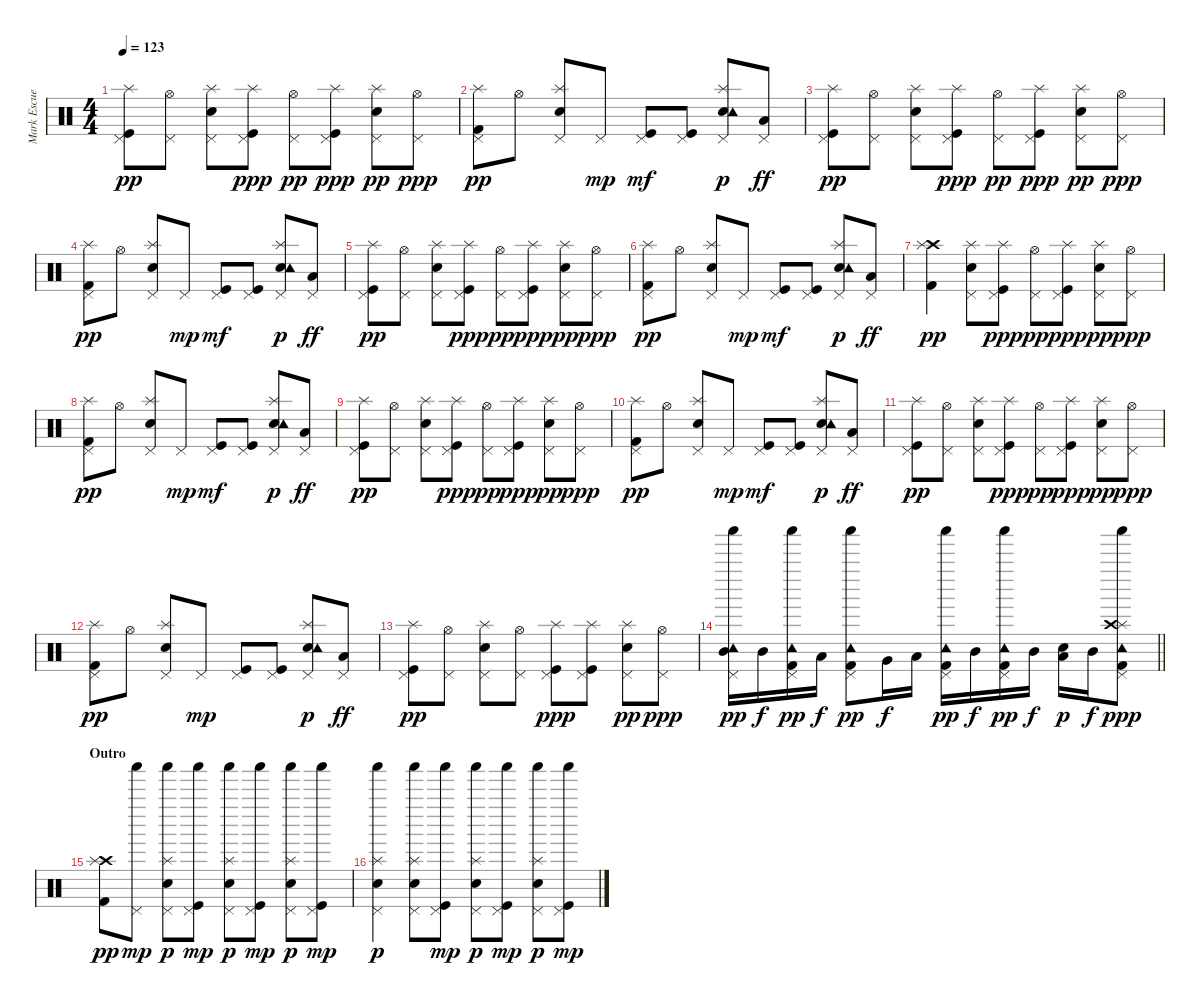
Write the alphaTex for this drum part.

\track ("Mark Escueta - Drums" "Mark Escue") {instrument percussion}
\staff {score}
\articulation defaults
\ts (4 4)
\tempo 123
\clef neutral
\ks c
("Pedal Hi-Hat (hit)" "Kick (hit)" "Splash (hit)").8{dy pp} ("Pedal Hi-Hat (hit)" "Hi-Hat (open)").8 ("Pedal Hi-Hat (hit)" "Electric Snare (hit)" "Splash (hit)").8 ("Pedal Hi-Hat (hit)" "Kick (hit)" "Splash (hit)").8{dy ppp} ("Pedal Hi-Hat (hit)" "Hi-Hat (open)").8{dy pp} ("Pedal Hi-Hat (hit)" "Kick (hit)" "Splash (hit)").8{dy ppp} ("Pedal Hi-Hat (hit)" "Electric Snare (hit)" "Splash (hit)").8{dy pp} ("Pedal Hi-Hat (hit)" "Hi-Hat (open)").8{dy ppp} |
("Pedal Hi-Hat (hit)" "Kick (hit) 2" "Splash (hit)").8{dy pp} "Hi-Hat (open)".8 ("Pedal Hi-Hat (hit)" "Electric Snare (hit)" "Splash (hit)").8 "Pedal Hi-Hat (hit)".8{dy mp} ("Pedal Hi-Hat (hit)" "Kick (hit)").8{dy mf} ("Pedal Hi-Hat (hit)" "Kick (hit)").8 ("Pedal Hi-Hat (hit)" "Electric Snare (hit)" "Splash (hit)" "Tambourine (hit)").8{dy p} ("Pedal Hi-Hat (hit)" "Low Tom (hit)").8{dy ff} |
("Pedal Hi-Hat (hit)" "Kick (hit)" "Splash (hit)").8{dy pp} ("Pedal Hi-Hat (hit)" "Hi-Hat (open)").8 ("Pedal Hi-Hat (hit)" "Electric Snare (hit)" "Splash (hit)").8 ("Pedal Hi-Hat (hit)" "Kick (hit)" "Splash (hit)").8{dy ppp} ("Pedal Hi-Hat (hit)" "Hi-Hat (open)").8{dy pp} ("Pedal Hi-Hat (hit)" "Kick (hit)" "Splash (hit)").8{dy ppp} ("Pedal Hi-Hat (hit)" "Electric Snare (hit)" "Splash (hit)").8{dy pp} ("Pedal Hi-Hat (hit)" "Hi-Hat (open)").8{dy ppp} |
("Pedal Hi-Hat (hit)" "Kick (hit) 2" "Splash (hit)").8{dy pp} "Hi-Hat (open)".8 ("Pedal Hi-Hat (hit)" "Electric Snare (hit)" "Splash (hit)").8 "Pedal Hi-Hat (hit)".8{dy mp} ("Pedal Hi-Hat (hit)" "Kick (hit)").8{dy mf} ("Pedal Hi-Hat (hit)" "Kick (hit)").8 ("Pedal Hi-Hat (hit)" "Electric Snare (hit)" "Splash (hit)" "Tambourine (hit)").8{dy p} ("Pedal Hi-Hat (hit)" "Low Tom (hit)").8{dy ff} |
("Pedal Hi-Hat (hit)" "Kick (hit)" "Splash (hit)").8{dy pp} ("Pedal Hi-Hat (hit)" "Hi-Hat (open)").8 ("Pedal Hi-Hat (hit)" "Electric Snare (hit)" "Splash (hit)").8 ("Pedal Hi-Hat (hit)" "Kick (hit)" "Splash (hit)").8{dy ppp} ("Pedal Hi-Hat (hit)" "Hi-Hat (open)").8{dy pp} ("Pedal Hi-Hat (hit)" "Kick (hit)" "Splash (hit)").8{dy ppp} ("Pedal Hi-Hat (hit)" "Electric Snare (hit)" "Splash (hit)").8{dy pp} ("Pedal Hi-Hat (hit)" "Hi-Hat (open)").8{dy ppp} |
("Pedal Hi-Hat (hit)" "Kick (hit) 2" "Splash (hit)").8{dy pp} "Hi-Hat (open)".8 ("Pedal Hi-Hat (hit)" "Electric Snare (hit)" "Splash (hit)").8 "Pedal Hi-Hat (hit)".8{dy mp} ("Pedal Hi-Hat (hit)" "Kick (hit)").8{dy mf} ("Pedal Hi-Hat (hit)" "Kick (hit)").8 ("Pedal Hi-Hat (hit)" "Electric Snare (hit)" "Splash (hit)" "Tambourine (hit)").8{dy p} ("Pedal Hi-Hat (hit)" "Low Tom (hit)").8{dy ff} |
("Crash high (hit)" "Kick (hit) 2" "Splash (hit)").4{dy pp} ("Pedal Hi-Hat (hit)" "Electric Snare (hit)" "Splash (hit)").8 ("Pedal Hi-Hat (hit)" "Kick (hit)" "Splash (hit)").8{dy ppp} ("Pedal Hi-Hat (hit)" "Hi-Hat (open)").8{dy pp} ("Pedal Hi-Hat (hit)" "Kick (hit)" "Splash (hit)").8{dy ppp} ("Pedal Hi-Hat (hit)" "Electric Snare (hit)" "Splash (hit)").8{dy pp} ("Pedal Hi-Hat (hit)" "Hi-Hat (open)").8{dy ppp} |
("Pedal Hi-Hat (hit)" "Kick (hit) 2" "Splash (hit)").8{dy pp} "Hi-Hat (open)".8 ("Pedal Hi-Hat (hit)" "Electric Snare (hit)" "Splash (hit)").8 "Pedal Hi-Hat (hit)".8{dy mp} ("Pedal Hi-Hat (hit)" "Kick (hit)").8{dy mf} ("Pedal Hi-Hat (hit)" "Kick (hit)").8 ("Pedal Hi-Hat (hit)" "Electric Snare (hit)" "Splash (hit)" "Tambourine (hit)").8{dy p} ("Pedal Hi-Hat (hit)" "Low Tom (hit)").8{dy ff} |
("Pedal Hi-Hat (hit)" "Kick (hit)" "Splash (hit)").8{dy pp} ("Pedal Hi-Hat (hit)" "Hi-Hat (open)").8 ("Pedal Hi-Hat (hit)" "Electric Snare (hit)" "Splash (hit)").8 ("Pedal Hi-Hat (hit)" "Kick (hit)" "Splash (hit)").8{dy ppp} ("Pedal Hi-Hat (hit)" "Hi-Hat (open)").8{dy pp} ("Pedal Hi-Hat (hit)" "Kick (hit)" "Splash (hit)").8{dy ppp} ("Pedal Hi-Hat (hit)" "Electric Snare (hit)" "Splash (hit)").8{dy pp} ("Pedal Hi-Hat (hit)" "Hi-Hat (open)").8{dy ppp} |
("Pedal Hi-Hat (hit)" "Kick (hit) 2" "Splash (hit)").8{dy pp} "Hi-Hat (open)".8 ("Pedal Hi-Hat (hit)" "Electric Snare (hit)" "Splash (hit)").8 "Pedal Hi-Hat (hit)".8{dy mp} ("Pedal Hi-Hat (hit)" "Kick (hit)").8{dy mf} ("Pedal Hi-Hat (hit)" "Kick (hit)").8 ("Pedal Hi-Hat (hit)" "Electric Snare (hit)" "Splash (hit)" "Tambourine (hit)").8{dy p} ("Pedal Hi-Hat (hit)" "Low Tom (hit)").8{dy ff} |
("Pedal Hi-Hat (hit)" "Kick (hit)" "Splash (hit)").8{dy pp} ("Pedal Hi-Hat (hit)" "Hi-Hat (open)").8 ("Pedal Hi-Hat (hit)" "Electric Snare (hit)" "Splash (hit)").8 ("Pedal Hi-Hat (hit)" "Kick (hit)" "Splash (hit)").8{dy ppp} ("Pedal Hi-Hat (hit)" "Hi-Hat (open)").8{dy pp} ("Pedal Hi-Hat (hit)" "Kick (hit)" "Splash (hit)").8{dy ppp} ("Pedal Hi-Hat (hit)" "Electric Snare (hit)" "Splash (hit)").8{dy pp} ("Pedal Hi-Hat (hit)" "Hi-Hat (open)").8{dy ppp} |
("Pedal Hi-Hat (hit)" "Kick (hit) 2" "Splash (hit)").8{dy pp} "Hi-Hat (open)".8 ("Pedal Hi-Hat (hit)" "Electric Snare (hit)" "Splash (hit)").8 "Pedal Hi-Hat (hit)".8{dy mp} ("Pedal Hi-Hat (hit)" "Kick (hit)").8 ("Pedal Hi-Hat (hit)" "Kick (hit)").8 ("Pedal Hi-Hat (hit)" "Electric Snare (hit)" "Splash (hit)" "Tambourine (hit)").8{dy p} ("Pedal Hi-Hat (hit)" "Low Tom (hit)").8{dy ff} |
("Pedal Hi-Hat (hit)" "Kick (hit)" "Splash (hit)").8{dy pp} ("Pedal Hi-Hat (hit)" "Hi-Hat (open)").8 ("Pedal Hi-Hat (hit)" "Electric Snare (hit)" "Splash (hit)").8 ("Pedal Hi-Hat (hit)" "Hi-Hat (open)").8 ("Pedal Hi-Hat (hit)" "Kick (hit)" "Splash (hit)").8{dy ppp} ("Pedal Hi-Hat (hit)" "Kick (hit)" "Splash (hit)").8 ("Pedal Hi-Hat (hit)" "Electric Snare (hit)" "Splash (hit)").8{dy pp} ("Pedal Hi-Hat (hit)" "Hi-Hat (open)").8{dy ppp} |
\barLineRight lightlight
("Mid Tom (hit)" "Shaker (hit)" "Pedal Hi-Hat (hit)" "Tambourine (hit)").16{dy pp} "Mid Tom (hit)".16{dy f} ("Kick (hit) 2" "Shaker (hit)" "Pedal Hi-Hat (hit)" "Tambourine (hit)").16{dy pp} "Low Tom (hit)".16{dy f} ("Kick (hit) 2" "Shaker (hit)" "Pedal Hi-Hat (hit)" "Tambourine (hit)").8{dy pp} "Very Low Tom (hit)".16{dy f} "Low Tom (hit)".16 ("Kick (hit) 2" "Shaker (hit)" "Pedal Hi-Hat (hit)" "Tambourine (hit)").16{dy pp} "Mid Tom (hit)".16{dy f} ("Kick (hit) 2" "Shaker (hit)" "Pedal Hi-Hat (hit)" "Tambourine (hit)").16{dy pp} "Mid Tom (hit)".16{dy f} ("Low Tom (hit)" "Electric Snare (hit)").16{dy p} "Mid Tom (hit)".16{dy f} ("Kick (hit) 2" "Shaker (hit)" "Pedal Hi-Hat (hit)" "Tambourine (hit)" "Splash (hit)" "Crash high (hit)").8{dy ppp} |
\section ("" "Outro")
("Crash high (hit)" "Kick (hit) 2" "Splash (hit)").8{dy pp} ("Shaker (hit)" "Pedal Hi-Hat (hit)").8{dy mp} ("Shaker (hit)" "Pedal Hi-Hat (hit)" "Electric Snare (hit)" "Splash (hit)").8{dy p} ("Shaker (hit)" "Pedal Hi-Hat (hit)" "Kick (hit)").8{dy mp} ("Shaker (hit)" "Pedal Hi-Hat (hit)" "Electric Snare (hit)" "Splash (hit)").8{dy p} ("Shaker (hit)" "Pedal Hi-Hat (hit)" "Kick (hit)").8{dy mp} ("Shaker (hit)" "Pedal Hi-Hat (hit)" "Electric Snare (hit)" "Splash (hit)").8{dy p} ("Shaker (hit)" "Pedal Hi-Hat (hit)" "Kick (hit)").8{dy mp} |
("Shaker (hit)" "Pedal Hi-Hat (hit)" "Electric Snare (hit)" "Splash (hit)").4{dy p} ("Shaker (hit)" "Pedal Hi-Hat (hit)" "Electric Snare (hit)" "Splash (hit)").8 ("Shaker (hit)" "Pedal Hi-Hat (hit)" "Kick (hit)").8{dy mp} ("Shaker (hit)" "Pedal Hi-Hat (hit)" "Electric Snare (hit)" "Splash (hit)").8{dy p} ("Shaker (hit)" "Pedal Hi-Hat (hit)" "Kick (hit)").8{dy mp} ("Shaker (hit)" "Pedal Hi-Hat (hit)" "Electric Snare (hit)" "Splash (hit)").8{dy p} ("Shaker (hit)" "Pedal Hi-Hat (hit)" "Kick (hit)").8{dy mp}
